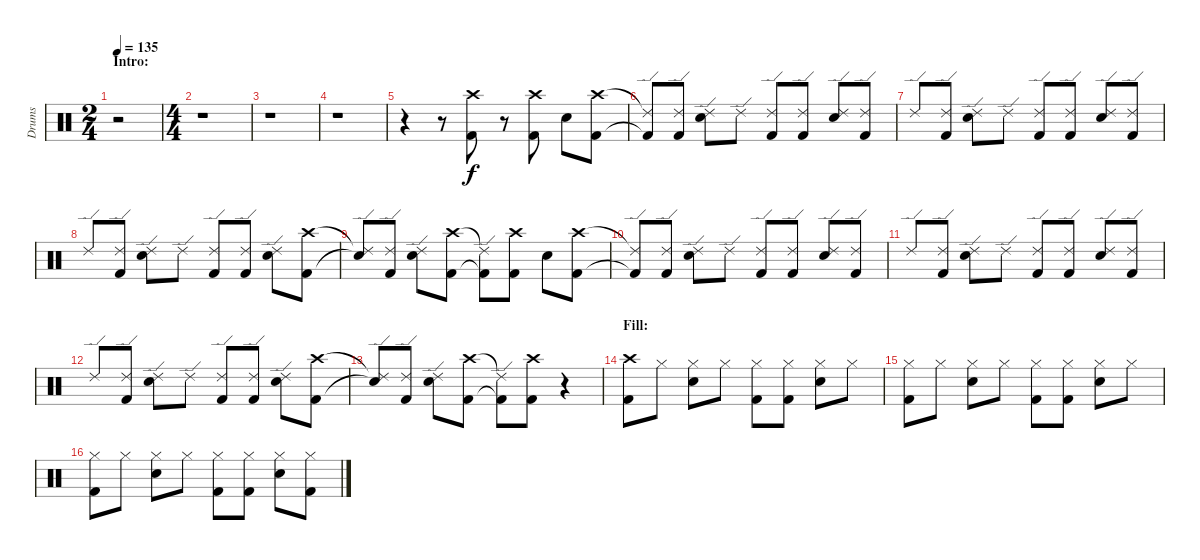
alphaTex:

\track ("Drums" "Drums") {instrument percussion}
\staff {score}
\articulation defaults
\ts (2 4)
\section ("" "Intro:")
\tempo 135
\clef neutral
\ks c
r.2{dy f} |
\ts (4 4)
r.1 |
r.1 |
r.1 |
r.4 r.8 ("Crash high (hit)" "Kick (hit) 2").8 r.8 ("Crash high (hit)" "Kick (hit) 2").8 "Electric Snare (hit)".8 ("Crash high (hit)" "Kick (hit) 2").8 |
("Ride (edge) 2"{t} "Kick (hit) 2"{t}).8 ("Ride (edge) 2" "Kick (hit) 2").8 ("Ride (edge) 2" "Electric Snare (hit)").8 "Ride (edge) 2".8 ("Ride (edge) 2" "Kick (hit) 2").8 ("Ride (edge) 2" "Kick (hit) 2").8 ("Ride (edge) 2" "Electric Snare (hit)").8 ("Ride (edge) 2" "Kick (hit) 2").8 |
"Ride (edge) 2".8 ("Ride (edge) 2" "Kick (hit) 2").8 ("Ride (edge) 2" "Electric Snare (hit)").8 "Ride (edge) 2".8 ("Ride (edge) 2" "Kick (hit) 2").8 ("Ride (edge) 2" "Kick (hit) 2").8 ("Ride (edge) 2" "Electric Snare (hit)").8 ("Ride (edge) 2" "Kick (hit) 2").8 |
"Ride (edge) 2".8 ("Ride (edge) 2" "Kick (hit) 2").8 ("Ride (edge) 2" "Electric Snare (hit)").8 "Ride (edge) 2".8 ("Ride (edge) 2" "Kick (hit) 2").8 ("Ride (edge) 2" "Kick (hit) 2").8 ("Ride (edge) 2" "Electric Snare (hit)").8 ("Crash high (hit)" "Kick (hit) 2").8 |
("Ride (edge) 2"{t} "Snare (hit)"{t}).8 ("Ride (edge) 2" "Kick (hit) 2").8 ("Ride (edge) 2" "Electric Snare (hit)").8 ("Crash high (hit)" "Kick (hit) 2").8 ("Ride (edge) 2"{t} "Kick (hit) 2"{t}).8 ("Crash high (hit)" "Kick (hit) 2").8 "Electric Snare (hit)".8 ("Crash high (hit)" "Kick (hit) 2").8 |
("Ride (edge) 2"{t} "Kick (hit) 2"{t}).8 ("Ride (edge) 2" "Kick (hit) 2").8 ("Ride (edge) 2" "Electric Snare (hit)").8 "Ride (edge) 2".8 ("Ride (edge) 2" "Kick (hit) 2").8 ("Ride (edge) 2" "Kick (hit) 2").8 ("Ride (edge) 2" "Electric Snare (hit)").8 ("Ride (edge) 2" "Kick (hit) 2").8 |
"Ride (edge) 2".8 ("Ride (edge) 2" "Kick (hit) 2").8 ("Ride (edge) 2" "Electric Snare (hit)").8 "Ride (edge) 2".8 ("Ride (edge) 2" "Kick (hit) 2").8 ("Ride (edge) 2" "Kick (hit) 2").8 ("Ride (edge) 2" "Electric Snare (hit)").8 ("Ride (edge) 2" "Kick (hit) 2").8 |
"Ride (edge) 2".8 ("Ride (edge) 2" "Kick (hit) 2").8 ("Ride (edge) 2" "Electric Snare (hit)").8 "Ride (edge) 2".8 ("Ride (edge) 2" "Kick (hit) 2").8 ("Ride (edge) 2" "Kick (hit) 2").8 ("Ride (edge) 2" "Electric Snare (hit)").8 ("Crash high (hit)" "Kick (hit) 2").8 |
("Ride (edge) 2"{t} "Snare (hit)"{t}).8 ("Ride (edge) 2" "Kick (hit) 2").8 ("Ride (edge) 2" "Electric Snare (hit)").8 ("Crash high (hit)" "Kick (hit) 2").8 ("Ride (edge) 2"{t} "Kick (hit) 2"{t}).8 ("Crash high (hit)" "Kick (hit) 2").8 r.4 |
\section ("" "Fill:")
("Crash high (hit)" "Kick (hit) 2").8 "Hi-Hat (closed)".8 ("Hi-Hat (closed)" "Electric Snare (hit)").8 "Hi-Hat (closed)".8 ("Hi-Hat (closed)" "Kick (hit) 2").8 ("Hi-Hat (closed)" "Kick (hit) 2").8 ("Hi-Hat (closed)" "Electric Snare (hit)").8 "Hi-Hat (closed)".8 |
("Hi-Hat (closed)" "Kick (hit) 2").8 "Hi-Hat (closed)".8 ("Hi-Hat (closed)" "Electric Snare (hit)").8 "Hi-Hat (closed)".8 ("Hi-Hat (closed)" "Kick (hit) 2").8 ("Hi-Hat (closed)" "Kick (hit) 2").8 ("Hi-Hat (closed)" "Electric Snare (hit)").8 "Hi-Hat (closed)".8 |
("Hi-Hat (closed)" "Kick (hit) 2").8 "Hi-Hat (closed)".8 ("Hi-Hat (closed)" "Electric Snare (hit)").8 "Hi-Hat (closed)".8 ("Hi-Hat (closed)" "Kick (hit) 2").8 ("Hi-Hat (closed)" "Kick (hit) 2").8 ("Hi-Hat (closed)" "Electric Snare (hit)").8 ("Hi-Hat (closed)" "Kick (hit) 2").8
